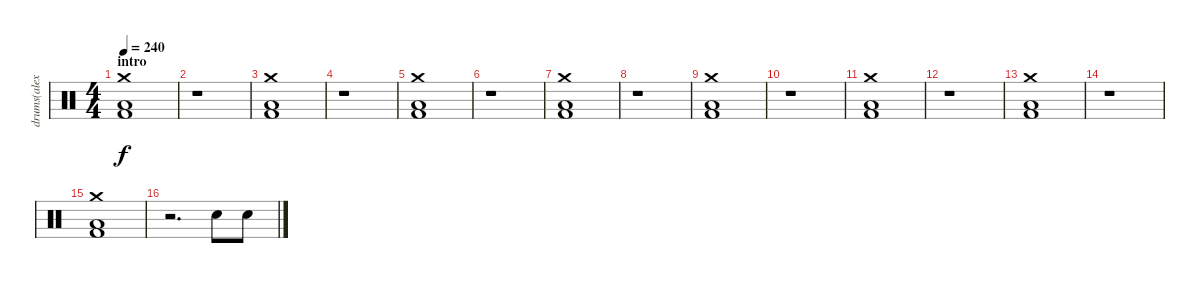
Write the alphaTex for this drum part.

\track ("drums(alex holzshwart)" "drums(alex") {instrument percussion}
\staff {score}
\articulation defaults
\ts (4 4)
\section ("" "intro")
\tempo 240
\clef neutral
\ks c
("Crash medium (hit)" "Low Floor Tom (hit)" "Kick (hit) 2").1{dy f} |
r.1 |
("Crash medium (hit)" "Low Floor Tom (hit)" "Kick (hit) 2").1 |
r.1 |
("Crash medium (hit)" "Low Floor Tom (hit)" "Kick (hit) 2").1 |
r.1 |
("Crash medium (hit)" "Low Floor Tom (hit)" "Kick (hit) 2").1 |
r.1 |
("Crash medium (hit)" "Low Floor Tom (hit)" "Kick (hit) 2").1 |
r.1 |
("Crash medium (hit)" "Low Floor Tom (hit)" "Kick (hit) 2").1 |
r.1 |
("Crash medium (hit)" "Low Floor Tom (hit)" "Kick (hit) 2").1 |
r.1 |
("Crash medium (hit)" "Low Floor Tom (hit)" "Kick (hit) 2").1 |
r.2{d} "Electric Snare (hit)".8 "Electric Snare (hit)".8
